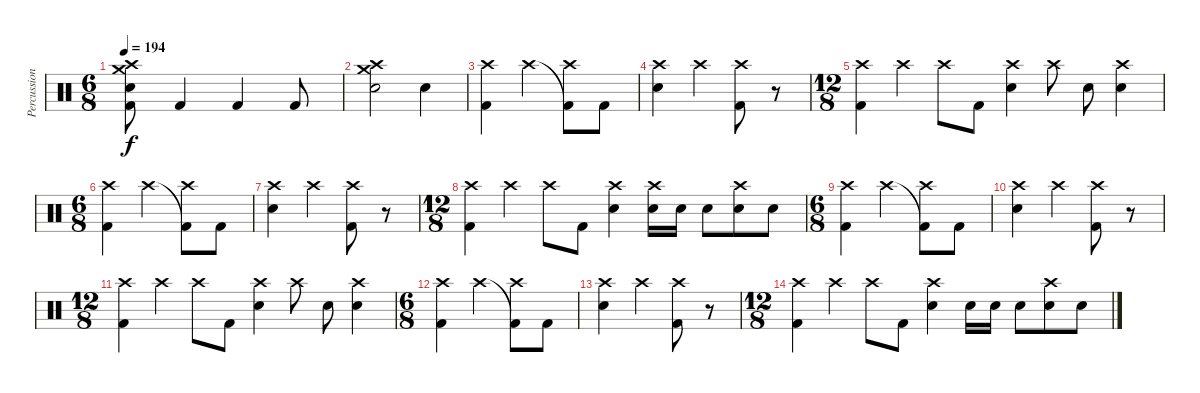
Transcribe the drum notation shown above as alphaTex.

\track ("Percussion" "Percussion") {instrument percussion}
\staff {score}
\articulation defaults
\ts (6 8)
\tempo 194
\clef neutral
\ks c
("Kick (hit) 2" "Snare (hit) 2" "Crash high (hit)" "Crash medium (hit)").8{dy f} "Kick (hit) 2".4 "Kick (hit) 2".4 "Kick (hit) 2".8 |
("Snare (hit) 2" "Crash medium (hit)" "Crash high (hit)").2 "Snare (hit) 2".4 |
("Kick (hit) 2" "Crash high (hit)").4 "Crash high (hit)".4 ("Kick (hit) 2"{t} "Crash high (hit)").8 "Kick (hit) 2".8 |
("Snare (hit) 2" "Crash high (hit)").4 "Crash high (hit)".4 ("Kick (hit) 2" "Crash high (hit)").8 r.8 |
\ts (12 8)
("Kick (hit) 2" "Crash high (hit)").4 "Crash high (hit)".4 "Crash high (hit)".8 "Kick (hit) 2".8 ("Snare (hit) 2" "Crash high (hit)").4 "Crash high (hit)".8 "Snare (hit) 2".8 ("Snare (hit) 2" "Crash high (hit)").4 |
\ts (6 8)
("Kick (hit) 2" "Crash high (hit)").4 "Crash high (hit)".4 ("Kick (hit) 2"{t} "Crash high (hit)").8 "Kick (hit) 2".8 |
("Snare (hit) 2" "Crash high (hit)").4 "Crash high (hit)".4 ("Kick (hit) 2" "Crash high (hit)").8 r.8 |
\ts (12 8)
("Kick (hit) 2" "Crash high (hit)").4 "Crash high (hit)".4 "Crash high (hit)".8 "Kick (hit) 2".8 ("Snare (hit) 2" "Crash high (hit)").4 ("Snare (hit) 2" "Crash high (hit)").16 "Snare (hit) 2".16 "Snare (hit) 2".8 ("Snare (hit) 2" "Crash high (hit)").8 "Snare (hit) 2".8 |
\ts (6 8)
("Kick (hit) 2" "Crash high (hit)").4 "Crash high (hit)".4 ("Kick (hit) 2"{t} "Crash high (hit)").8 "Kick (hit) 2".8 |
("Snare (hit) 2" "Crash high (hit)").4 "Crash high (hit)".4 ("Kick (hit) 2" "Crash high (hit)").8 r.8 |
\ts (12 8)
("Kick (hit) 2" "Crash high (hit)").4 "Crash high (hit)".4 "Crash high (hit)".8 "Kick (hit) 2".8 ("Snare (hit) 2" "Crash high (hit)").4 "Crash high (hit)".8 "Snare (hit) 2".8 ("Snare (hit) 2" "Crash high (hit)").4 |
\ts (6 8)
("Kick (hit) 2" "Crash high (hit)").4 "Crash high (hit)".4 ("Kick (hit) 2"{t} "Crash high (hit)").8 "Kick (hit) 2".8 |
("Snare (hit) 2" "Crash high (hit)").4 "Crash high (hit)".4 ("Kick (hit) 2" "Crash high (hit)").8 r.8 |
\ts (12 8)
("Kick (hit) 2" "Crash high (hit)").4 "Crash high (hit)".4 "Crash high (hit)".8 "Kick (hit) 2".8 ("Snare (hit) 2" "Crash high (hit)").4 "Snare (hit) 2".16 "Snare (hit) 2".16 "Snare (hit) 2".8 ("Snare (hit) 2" "Crash high (hit)").8 "Snare (hit) 2".8
